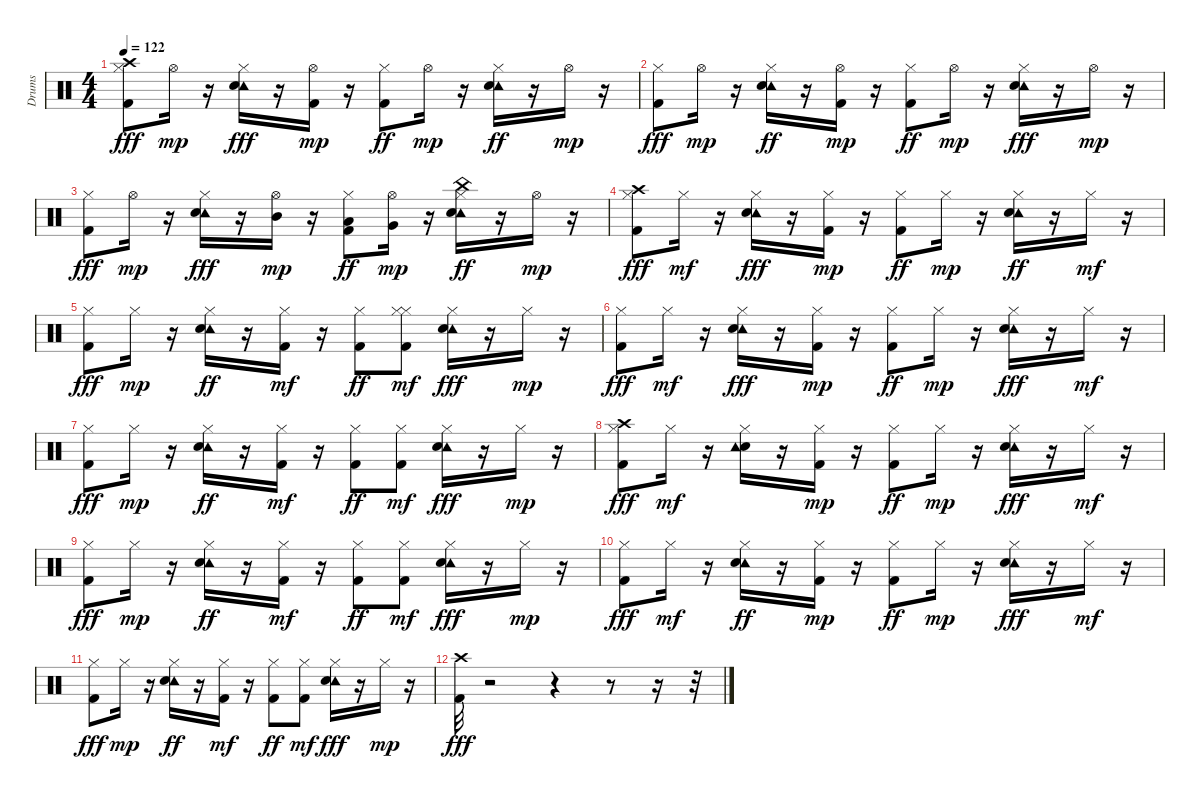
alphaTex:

\track ("Drums" "Drums") {instrument percussion}
\staff {score}
\articulation defaults
\ts (4 4)
\tempo 122
\clef neutral
\ks c
("Crash high (hit)" "Kick (hit) 2" "Hi-Hat (closed)").8{dy fff} "Hi-Hat (open)".16{dy mp} r.16 ("Tambourine (hit)" "Hi-Hat (closed)" "Snare (hit) 2").16{dy fff} r.16 ("Kick (hit) 2" "Hi-Hat (open)").16{dy mp} r.16 ("Kick (hit) 2" "Hi-Hat (closed)").8{dy ff} "Hi-Hat (open)".16{dy mp} r.16 ("Tambourine (hit)" "Snare (hit) 2" "Hi-Hat (closed)").16{dy ff} r.16 "Hi-Hat (open)".16{dy mp} r.16 |
("Kick (hit) 2" "Hi-Hat (closed)").8{dy fff} "Hi-Hat (open)".16{dy mp} r.16 ("Tambourine (hit)" "Snare (hit) 2" "Hi-Hat (closed)").16{dy ff} r.16 ("Kick (hit) 2" "Hi-Hat (open)").16{dy mp} r.16 ("Kick (hit) 2" "Hi-Hat (closed)").8{dy ff} "Hi-Hat (open)".16{dy mp} r.16 ("Tambourine (hit)" "Snare (hit) 2" "Hi-Hat (closed)").16{dy fff} r.16 "Hi-Hat (open)".16{dy mp} r.16 |
("Hi-Hat (closed)" "Kick (hit) 2").8{dy fff} "Hi-Hat (open)".16{dy mp} r.16 ("Tambourine (hit)" "Hi-Hat (closed)" "Snare (hit) 2").16{dy fff} r.16 ("Mid Tom (hit)" "Hi-Hat (open)").16{dy mp} r.16 ("Low Tom (hit)" "Kick (hit) 2" "Hi-Hat (closed)").8{dy ff} ("Very Low Tom (hit)" "Hi-Hat (open)").16{dy mp} r.16 ("China (hit)" "Tambourine (hit)" "Snare (hit) 2" "Hi-Hat (closed)").16{dy ff} r.16 "Hi-Hat (open)".16{dy mp} r.16 |
("Crash high (hit)" "Hi-Hat (closed)" "Kick (hit) 2").8{dy fff} "Hi-Hat (closed)".16{dy mf} r.16 ("Tambourine (hit)" "Hi-Hat (closed)" "Snare (hit) 2").16{dy fff} r.16 ("Kick (hit) 2" "Hi-Hat (closed)").16{dy mp} r.16 ("Kick (hit) 2" "Hi-Hat (closed)").8{dy ff} "Hi-Hat (closed)".16{dy mp} r.16 ("Tambourine (hit)" "Snare (hit) 2" "Hi-Hat (closed)").16{dy ff} r.16 "Hi-Hat (closed)".16{dy mf} r.16 |
("Kick (hit) 2" "Hi-Hat (closed)").8{dy fff} "Hi-Hat (closed)".16{dy mp} r.16 ("Tambourine (hit)" "Snare (hit) 2" "Hi-Hat (closed)").16{dy ff} r.16 ("Kick (hit) 2" "Hi-Hat (closed)").16{dy mf} r.16 ("Kick (hit) 2" "Hi-Hat (closed)").8{dy ff} ("Kick (hit) 2" "Hi-Hat (closed)" "Hi-Hat (closed)").8{dy mf} ("Tambourine (hit)" "Snare (hit) 2" "Hi-Hat (closed)").16{dy fff} r.16 "Hi-Hat (closed)".16{dy mp} r.16 |
("Kick (hit) 2" "Hi-Hat (closed)").8{dy fff} "Hi-Hat (closed)".16{dy mf} r.16 ("Tambourine (hit)" "Hi-Hat (closed)" "Snare (hit) 2").16{dy fff} r.16 ("Kick (hit) 2" "Hi-Hat (closed)").16{dy mp} r.16 ("Kick (hit) 2" "Hi-Hat (closed)").8{dy ff} "Hi-Hat (closed)".16{dy mp} r.16 ("Tambourine (hit)" "Hi-Hat (closed)" "Snare (hit) 2").16{dy fff} r.16 "Hi-Hat (closed)".16{dy mf} r.16 |
("Kick (hit) 2" "Hi-Hat (closed)").8{dy fff} "Hi-Hat (closed)".16{dy mp} r.16 ("Tambourine (hit)" "Snare (hit) 2" "Hi-Hat (closed)").16{dy ff} r.16 ("Kick (hit) 2" "Hi-Hat (closed)").16{dy mf} r.16 ("Kick (hit) 2" "Hi-Hat (closed)").8{dy ff} ("Kick (hit) 2" "Hi-Hat (closed)").8{dy mf} ("Tambourine (hit)" "Snare (hit) 2" "Hi-Hat (closed)").16{dy fff} r.16 "Hi-Hat (closed)".16{dy mp} r.16 |
("Hi-Hat (closed)" "Crash high (hit)" "Kick (hit) 2").8{dy fff} "Hi-Hat (closed)".16{dy mf} r.16 ("Snare (hit) 2" "Hi-Hat (closed)" "Tambourine (hit)").16 r.16 ("Kick (hit) 2" "Hi-Hat (closed)").16{dy mp} r.16 ("Kick (hit) 2" "Hi-Hat (closed)").8{dy ff} "Hi-Hat (closed)".16{dy mp} r.16 ("Tambourine (hit)" "Hi-Hat (closed)" "Snare (hit) 2").16{dy fff} r.16 "Hi-Hat (closed)".16{dy mf} r.16 |
("Kick (hit) 2" "Hi-Hat (closed)").8{dy fff} "Hi-Hat (closed)".16{dy mp} r.16 ("Tambourine (hit)" "Snare (hit) 2" "Hi-Hat (closed)").16{dy ff} r.16 ("Kick (hit) 2" "Hi-Hat (closed)").16{dy mf} r.16 ("Kick (hit) 2" "Hi-Hat (closed)").8{dy ff} ("Kick (hit) 2" "Hi-Hat (closed)").8{dy mf} ("Tambourine (hit)" "Snare (hit) 2" "Hi-Hat (closed)").16{dy fff} r.16 "Hi-Hat (closed)".16{dy mp} r.16 |
("Hi-Hat (closed)" "Kick (hit) 2").8{dy fff} "Hi-Hat (closed)".16{dy mf} r.16 ("Tambourine (hit)" "Snare (hit) 2" "Hi-Hat (closed)").16{dy ff} r.16 ("Kick (hit) 2" "Hi-Hat (closed)").16{dy mp} r.16 ("Kick (hit) 2" "Hi-Hat (closed)").8{dy ff} "Hi-Hat (closed)".16{dy mp} r.16 ("Tambourine (hit)" "Hi-Hat (closed)" "Snare (hit) 2").16{dy fff} r.16 "Hi-Hat (closed)".16{dy mf} r.16 |
("Kick (hit) 2" "Hi-Hat (closed)").8{dy fff} "Hi-Hat (closed)".16{dy mp} r.16 ("Tambourine (hit)" "Snare (hit) 2" "Hi-Hat (closed)").16{dy ff} r.16 ("Kick (hit) 2" "Hi-Hat (closed)").16{dy mf} r.16 ("Kick (hit) 2" "Hi-Hat (closed)").8{dy ff} ("Kick (hit) 2" "Hi-Hat (closed)").8{dy mf} ("Tambourine (hit)" "Snare (hit) 2" "Hi-Hat (closed)").16{dy fff} r.16 "Hi-Hat (closed)".16{dy mp} r.16 |
("Crash high (hit)" "Kick (hit) 2").32{dy fff} r.2 r.4 r.8 r.16 r.32
